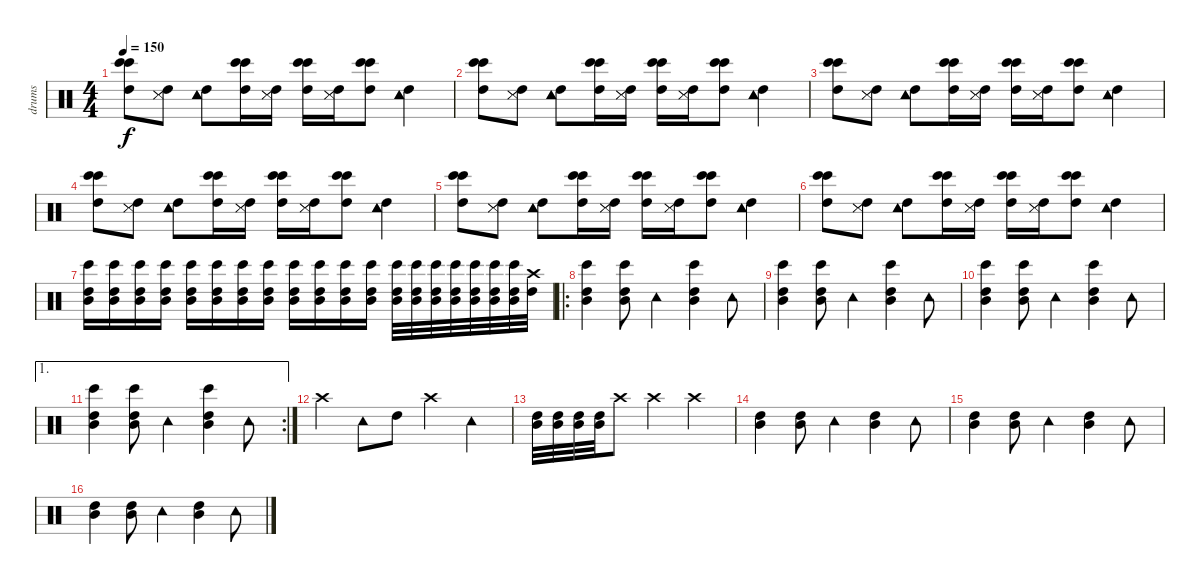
\track ("drums" "drums") {instrument percussion}
\staff {score}
\articulation defaults
\ts (4 4)
\tempo 150
\clef neutral
\ks c
("Bongo High (hit)" "High Tom (hit)" "Bongo High (hit)").8{dy f} ("Snare (side stick) 3" "High Tom (hit)" "Snare (side stick) 3").8 ("Tambourine (hit)" "High Tom (hit)" "Tambourine (hit)").8 ("Bongo High (hit)" "High Tom (hit)" "Bongo High (hit)").16 ("Snare (side stick) 3" "High Tom (hit)" "Snare (side stick) 3").16 ("Bongo High (hit)" "High Tom (hit)" "Bongo High (hit)").16 ("Snare (side stick) 3" "High Tom (hit)" "Snare (side stick) 3").16 ("Bongo High (hit)" "High Tom (hit)" "Bongo High (hit)").8 ("Tambourine (hit)" "High Tom (hit)" "Tambourine (hit)").4 |
("Bongo High (hit)" "High Tom (hit)" "Bongo High (hit)").8 ("Snare (side stick) 3" "High Tom (hit)" "Snare (side stick) 3").8 ("Tambourine (hit)" "High Tom (hit)" "Tambourine (hit)").8 ("Bongo High (hit)" "High Tom (hit)" "Bongo High (hit)").16 ("Snare (side stick) 3" "High Tom (hit)" "Snare (side stick) 3").16 ("Bongo High (hit)" "High Tom (hit)" "Bongo High (hit)").16 ("Snare (side stick) 3" "High Tom (hit)" "Snare (side stick) 3").16 ("Bongo High (hit)" "High Tom (hit)" "Bongo High (hit)").8 ("Tambourine (hit)" "High Tom (hit)" "Tambourine (hit)").4 |
("Bongo High (hit)" "High Tom (hit)" "Bongo High (hit)").8 ("Snare (side stick) 3" "High Tom (hit)" "Snare (side stick) 3").8 ("Tambourine (hit)" "High Tom (hit)" "Tambourine (hit)").8 ("Bongo High (hit)" "High Tom (hit)" "Bongo High (hit)").16 ("Snare (side stick) 3" "High Tom (hit)" "Snare (side stick) 3").16 ("Bongo High (hit)" "High Tom (hit)" "Bongo High (hit)").16 ("Snare (side stick) 3" "High Tom (hit)" "Snare (side stick) 3").16 ("Bongo High (hit)" "High Tom (hit)" "Bongo High (hit)").8 ("Tambourine (hit)" "High Tom (hit)" "Tambourine (hit)").4 |
("Bongo High (hit)" "High Tom (hit)" "Bongo High (hit)").8 ("Snare (side stick) 3" "High Tom (hit)" "Snare (side stick) 3").8 ("Tambourine (hit)" "High Tom (hit)" "Tambourine (hit)").8 ("Bongo High (hit)" "High Tom (hit)" "Bongo High (hit)").16 ("Snare (side stick) 3" "High Tom (hit)" "Snare (side stick) 3").16 ("Bongo High (hit)" "High Tom (hit)" "Bongo High (hit)").16 ("Snare (side stick) 3" "High Tom (hit)" "Snare (side stick) 3").16 ("Bongo High (hit)" "High Tom (hit)" "Bongo High (hit)").8 ("Tambourine (hit)" "High Tom (hit)" "Tambourine (hit)").4 |
("Bongo High (hit)" "High Tom (hit)" "Bongo High (hit)").8 ("Snare (side stick) 3" "High Tom (hit)" "Snare (side stick) 3").8 ("Tambourine (hit)" "High Tom (hit)" "Tambourine (hit)").8 ("Bongo High (hit)" "High Tom (hit)" "Bongo High (hit)").16 ("Snare (side stick) 3" "High Tom (hit)" "Snare (side stick) 3").16 ("Bongo High (hit)" "High Tom (hit)" "Bongo High (hit)").16 ("Snare (side stick) 3" "High Tom (hit)" "Snare (side stick) 3").16 ("Bongo High (hit)" "High Tom (hit)" "Bongo High (hit)").8 ("Tambourine (hit)" "High Tom (hit)" "Tambourine (hit)").4 |
("Bongo High (hit)" "High Tom (hit)" "Bongo High (hit)").8 ("Snare (side stick) 3" "High Tom (hit)" "Snare (side stick) 3").8 ("Tambourine (hit)" "High Tom (hit)" "Tambourine (hit)").8 ("Bongo High (hit)" "High Tom (hit)" "Bongo High (hit)").16 ("Snare (side stick) 3" "High Tom (hit)" "Snare (side stick) 3").16 ("Bongo High (hit)" "High Tom (hit)" "Bongo High (hit)").16 ("Snare (side stick) 3" "High Tom (hit)" "Snare (side stick) 3").16 ("Bongo High (hit)" "High Tom (hit)" "Bongo High (hit)").8 ("Tambourine (hit)" "High Tom (hit)" "Tambourine (hit)").4 |
("Mid Tom (hit)" "High Tom (hit)" "Bongo High (hit)").16 ("Mid Tom (hit)" "High Tom (hit)" "Bongo High (hit)").16 ("Mid Tom (hit)" "High Tom (hit)" "Bongo High (hit)").16 ("Mid Tom (hit)" "High Tom (hit)" "Bongo High (hit)").16 ("Mid Tom (hit)" "High Tom (hit)" "Bongo High (hit)").16 ("Mid Tom (hit)" "High Tom (hit)" "Bongo High (hit)").16 ("Mid Tom (hit)" "High Tom (hit)" "Bongo High (hit)").16 ("Mid Tom (hit)" "High Tom (hit)" "Bongo High (hit)").16 ("Mid Tom (hit)" "High Tom (hit)" "Bongo High (hit)").16 ("Mid Tom (hit)" "High Tom (hit)" "Bongo High (hit)").16 ("Mid Tom (hit)" "High Tom (hit)" "Bongo High (hit)").16 ("Mid Tom (hit)" "High Tom (hit)" "Bongo High (hit)").16 ("Mid Tom (hit)" "High Tom (hit)" "Bongo High (hit)").32 ("Mid Tom (hit)" "High Tom (hit)" "Bongo High (hit)").32 ("Mid Tom (hit)" "High Tom (hit)" "Bongo High (hit)").32 ("Mid Tom (hit)" "High Tom (hit)" "Bongo High (hit)").32 ("Mid Tom (hit)" "High Tom (hit)" "Bongo High (hit)").32 ("Mid Tom (hit)" "High Tom (hit)" "Bongo High (hit)").32 ("Mid Tom (hit)" "High Tom (hit)" "Bongo High (hit)").32 ("Crash high (hit)" "High Tom (hit)").32 |
\ro
("High Tom (hit)" "Mid Tom (hit)" "Bongo High (hit)").4 ("High Tom (hit)" "Mid Tom (hit)" "Bongo High (hit)").8 "Tambourine (hit)".4 ("High Tom (hit)" "Mid Tom (hit)" "Bongo High (hit)").4 "Tambourine (hit)".8 |
("High Tom (hit)" "Mid Tom (hit)" "Bongo High (hit)").4 ("High Tom (hit)" "Mid Tom (hit)" "Bongo High (hit)").8 "Tambourine (hit)".4 ("High Tom (hit)" "Mid Tom (hit)" "Bongo High (hit)").4 "Tambourine (hit)".8 |
("High Tom (hit)" "Mid Tom (hit)" "Bongo High (hit)").4 ("High Tom (hit)" "Mid Tom (hit)" "Bongo High (hit)").8 "Tambourine (hit)".4 ("High Tom (hit)" "Mid Tom (hit)" "Bongo High (hit)").4 "Tambourine (hit)".8 |
\ae 1
\rc 2
("High Tom (hit)" "Mid Tom (hit)" "Bongo High (hit)").4 ("High Tom (hit)" "Mid Tom (hit)" "Bongo High (hit)").8 "Tambourine (hit)".4 ("High Tom (hit)" "Mid Tom (hit)" "Bongo High (hit)").4 "Tambourine (hit)".8 |
"Crash high (hit)".4 "Tambourine (hit)".8 "High Tom (hit)".8 "Crash high (hit)".4 "Tambourine (hit)".4 |
("Mid Tom (hit)" "High Tom (hit)").32 ("Mid Tom (hit)" "High Tom (hit)").32 ("Mid Tom (hit)" "High Tom (hit)").32 ("Mid Tom (hit)" "High Tom (hit)").32 "Crash high (hit)".8 "Crash high (hit)".4 "Crash high (hit)".4 |
("High Tom (hit)" "Mid Tom (hit)").4 ("High Tom (hit)" "Mid Tom (hit)").8 "Tambourine (hit)".4 ("High Tom (hit)" "Mid Tom (hit)").4 "Tambourine (hit)".8 |
("High Tom (hit)" "Mid Tom (hit)").4 ("High Tom (hit)" "Mid Tom (hit)").8 "Tambourine (hit)".4 ("High Tom (hit)" "Mid Tom (hit)").4 "Tambourine (hit)".8 |
("High Tom (hit)" "Mid Tom (hit)").4 ("High Tom (hit)" "Mid Tom (hit)").8 "Tambourine (hit)".4 ("High Tom (hit)" "Mid Tom (hit)").4 "Tambourine (hit)".8
